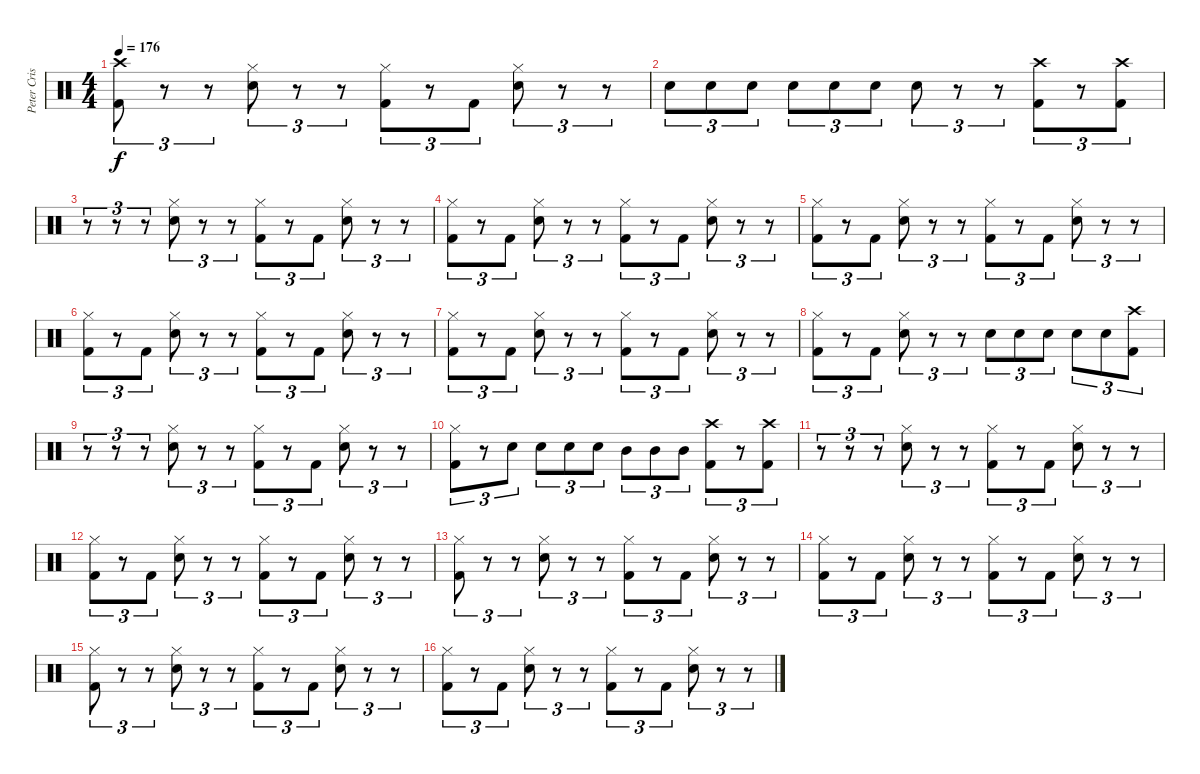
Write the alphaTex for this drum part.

\track ("Peter Criss" "Peter Cris") {instrument percussion}
\staff {score}
\articulation defaults
\ts (4 4)
\tempo 176
\clef neutral
\ks c
("Crash high (hit)" "Kick (hit) 2").8{tu (3 2) dy f} r.8{tu (3 2)} r.8{tu (3 2)} ("Hi-Hat (closed)" "Electric Snare (hit)").8{tu (3 2)} r.8{tu (3 2)} r.8{tu (3 2)} ("Hi-Hat (closed)" "Kick (hit) 2").8{tu (3 2)} r.8{tu (3 2)} "Kick (hit) 2".8{tu (3 2)} ("Hi-Hat (closed)" "Electric Snare (hit)").8{tu (3 2)} r.8{tu (3 2)} r.8{tu (3 2)} |
"Electric Snare (hit)".8{tu (3 2)} "Electric Snare (hit)".8{tu (3 2)} "Electric Snare (hit)".8{tu (3 2)} "Electric Snare (hit)".8{tu (3 2)} "Electric Snare (hit)".8{tu (3 2)} "Electric Snare (hit)".8{tu (3 2)} "Electric Snare (hit)".8{tu (3 2)} r.8{tu (3 2)} r.8{tu (3 2)} ("Crash high (hit)" "Kick (hit) 2").8{tu (3 2)} r.8{tu (3 2)} ("Crash high (hit)" "Kick (hit) 2").8{tu (3 2)} |
r.8{tu (3 2)} r.8{tu (3 2)} r.8{tu (3 2)} ("Hi-Hat (closed)" "Electric Snare (hit)").8{tu (3 2)} r.8{tu (3 2)} r.8{tu (3 2)} ("Hi-Hat (closed)" "Kick (hit) 2").8{tu (3 2)} r.8{tu (3 2)} "Kick (hit) 2".8{tu (3 2)} ("Hi-Hat (closed)" "Electric Snare (hit)").8{tu (3 2)} r.8{tu (3 2)} r.8{tu (3 2)} |
("Hi-Hat (closed)" "Kick (hit) 2").8{tu (3 2)} r.8{tu (3 2)} "Kick (hit) 2".8{tu (3 2)} ("Hi-Hat (closed)" "Electric Snare (hit)").8{tu (3 2)} r.8{tu (3 2)} r.8{tu (3 2)} ("Hi-Hat (closed)" "Kick (hit) 2").8{tu (3 2)} r.8{tu (3 2)} "Kick (hit) 2".8{tu (3 2)} ("Hi-Hat (closed)" "Electric Snare (hit)").8{tu (3 2)} r.8{tu (3 2)} r.8{tu (3 2)} |
("Hi-Hat (closed)" "Kick (hit) 2").8{tu (3 2)} r.8{tu (3 2)} "Kick (hit) 2".8{tu (3 2)} ("Hi-Hat (closed)" "Electric Snare (hit)").8{tu (3 2)} r.8{tu (3 2)} r.8{tu (3 2)} ("Hi-Hat (closed)" "Kick (hit) 2").8{tu (3 2)} r.8{tu (3 2)} "Kick (hit) 2".8{tu (3 2)} ("Hi-Hat (closed)" "Electric Snare (hit)").8{tu (3 2)} r.8{tu (3 2)} r.8{tu (3 2)} |
("Hi-Hat (closed)" "Kick (hit) 2").8{tu (3 2)} r.8{tu (3 2)} "Kick (hit) 2".8{tu (3 2)} ("Hi-Hat (closed)" "Electric Snare (hit)").8{tu (3 2)} r.8{tu (3 2)} r.8{tu (3 2)} ("Hi-Hat (closed)" "Kick (hit) 2").8{tu (3 2)} r.8{tu (3 2)} "Kick (hit) 2".8{tu (3 2)} ("Hi-Hat (closed)" "Electric Snare (hit)").8{tu (3 2)} r.8{tu (3 2)} r.8{tu (3 2)} |
("Hi-Hat (closed)" "Kick (hit) 2").8{tu (3 2)} r.8{tu (3 2)} "Kick (hit) 2".8{tu (3 2)} ("Hi-Hat (closed)" "Electric Snare (hit)").8{tu (3 2)} r.8{tu (3 2)} r.8{tu (3 2)} ("Hi-Hat (closed)" "Kick (hit) 2").8{tu (3 2)} r.8{tu (3 2)} "Kick (hit) 2".8{tu (3 2)} ("Hi-Hat (closed)" "Electric Snare (hit)").8{tu (3 2)} r.8{tu (3 2)} r.8{tu (3 2)} |
("Hi-Hat (closed)" "Kick (hit) 2").8{tu (3 2)} r.8{tu (3 2)} "Kick (hit) 2".8{tu (3 2)} ("Hi-Hat (closed)" "Electric Snare (hit)").8{tu (3 2)} r.8{tu (3 2)} r.8{tu (3 2)} "Electric Snare (hit)".8{tu (3 2)} "Electric Snare (hit)".8{tu (3 2)} "Electric Snare (hit)".8{tu (3 2)} "Electric Snare (hit)".8{tu (3 2)} "Electric Snare (hit)".8{tu (3 2)} ("Crash high (hit)" "Kick (hit) 2").8{tu (3 2)} |
r.8{tu (3 2)} r.8{tu (3 2)} r.8{tu (3 2)} ("Hi-Hat (closed)" "Electric Snare (hit)").8{tu (3 2)} r.8{tu (3 2)} r.8{tu (3 2)} ("Hi-Hat (closed)" "Kick (hit) 2").8{tu (3 2)} r.8{tu (3 2)} "Kick (hit) 2".8{tu (3 2)} ("Hi-Hat (closed)" "Electric Snare (hit)").8{tu (3 2)} r.8{tu (3 2)} r.8{tu (3 2)} |
("Hi-Hat (closed)" "Kick (hit) 2").8{tu (3 2)} r.8{tu (3 2)} "Electric Snare (hit)".8{tu (3 2)} "Electric Snare (hit)".8{tu (3 2)} "Electric Snare (hit)".8{tu (3 2)} "Electric Snare (hit)".8{tu (3 2)} "Mid Tom (hit)".8{tu (3 2)} "Mid Tom (hit)".8{tu (3 2)} "Mid Tom (hit)".8{tu (3 2)} ("Crash high (hit)" "Kick (hit) 2").8{tu (3 2)} r.8{tu (3 2)} ("Crash high (hit)" "Kick (hit) 2").8{tu (3 2)} |
r.8{tu (3 2)} r.8{tu (3 2)} r.8{tu (3 2)} ("Hi-Hat (closed)" "Electric Snare (hit)").8{tu (3 2)} r.8{tu (3 2)} r.8{tu (3 2)} ("Hi-Hat (closed)" "Kick (hit) 2").8{tu (3 2)} r.8{tu (3 2)} "Kick (hit) 2".8{tu (3 2)} ("Hi-Hat (closed)" "Electric Snare (hit)").8{tu (3 2)} r.8{tu (3 2)} r.8{tu (3 2)} |
("Hi-Hat (closed)" "Kick (hit) 2").8{tu (3 2)} r.8{tu (3 2)} "Kick (hit) 2".8{tu (3 2)} ("Hi-Hat (closed)" "Electric Snare (hit)").8{tu (3 2)} r.8{tu (3 2)} r.8{tu (3 2)} ("Hi-Hat (closed)" "Kick (hit) 2").8{tu (3 2)} r.8{tu (3 2)} "Kick (hit) 2".8{tu (3 2)} ("Hi-Hat (closed)" "Electric Snare (hit)").8{tu (3 2)} r.8{tu (3 2)} r.8{tu (3 2)} |
("Hi-Hat (closed)" "Kick (hit) 2").8{tu (3 2)} r.8{tu (3 2)} r.8{tu (3 2)} ("Hi-Hat (closed)" "Electric Snare (hit)").8{tu (3 2)} r.8{tu (3 2)} r.8{tu (3 2)} ("Hi-Hat (closed)" "Kick (hit) 2").8{tu (3 2)} r.8{tu (3 2)} "Kick (hit) 2".8{tu (3 2)} ("Hi-Hat (closed)" "Electric Snare (hit)").8{tu (3 2)} r.8{tu (3 2)} r.8{tu (3 2)} |
("Hi-Hat (closed)" "Kick (hit) 2").8{tu (3 2)} r.8{tu (3 2)} "Kick (hit) 2".8{tu (3 2)} ("Hi-Hat (closed)" "Electric Snare (hit)").8{tu (3 2)} r.8{tu (3 2)} r.8{tu (3 2)} ("Hi-Hat (closed)" "Kick (hit) 2").8{tu (3 2)} r.8{tu (3 2)} "Kick (hit) 2".8{tu (3 2)} ("Hi-Hat (closed)" "Electric Snare (hit)").8{tu (3 2)} r.8{tu (3 2)} r.8{tu (3 2)} |
("Hi-Hat (closed)" "Kick (hit) 2").8{tu (3 2)} r.8{tu (3 2)} r.8{tu (3 2)} ("Hi-Hat (closed)" "Electric Snare (hit)").8{tu (3 2)} r.8{tu (3 2)} r.8{tu (3 2)} ("Hi-Hat (closed)" "Kick (hit) 2").8{tu (3 2)} r.8{tu (3 2)} "Kick (hit) 2".8{tu (3 2)} ("Hi-Hat (closed)" "Electric Snare (hit)").8{tu (3 2)} r.8{tu (3 2)} r.8{tu (3 2)} |
("Hi-Hat (closed)" "Kick (hit) 2").8{tu (3 2)} r.8{tu (3 2)} "Kick (hit) 2".8{tu (3 2)} ("Hi-Hat (closed)" "Electric Snare (hit)").8{tu (3 2)} r.8{tu (3 2)} r.8{tu (3 2)} ("Hi-Hat (closed)" "Kick (hit) 2").8{tu (3 2)} r.8{tu (3 2)} "Kick (hit) 2".8{tu (3 2)} ("Hi-Hat (closed)" "Electric Snare (hit)").8{tu (3 2)} r.8{tu (3 2)} r.8{tu (3 2)}
